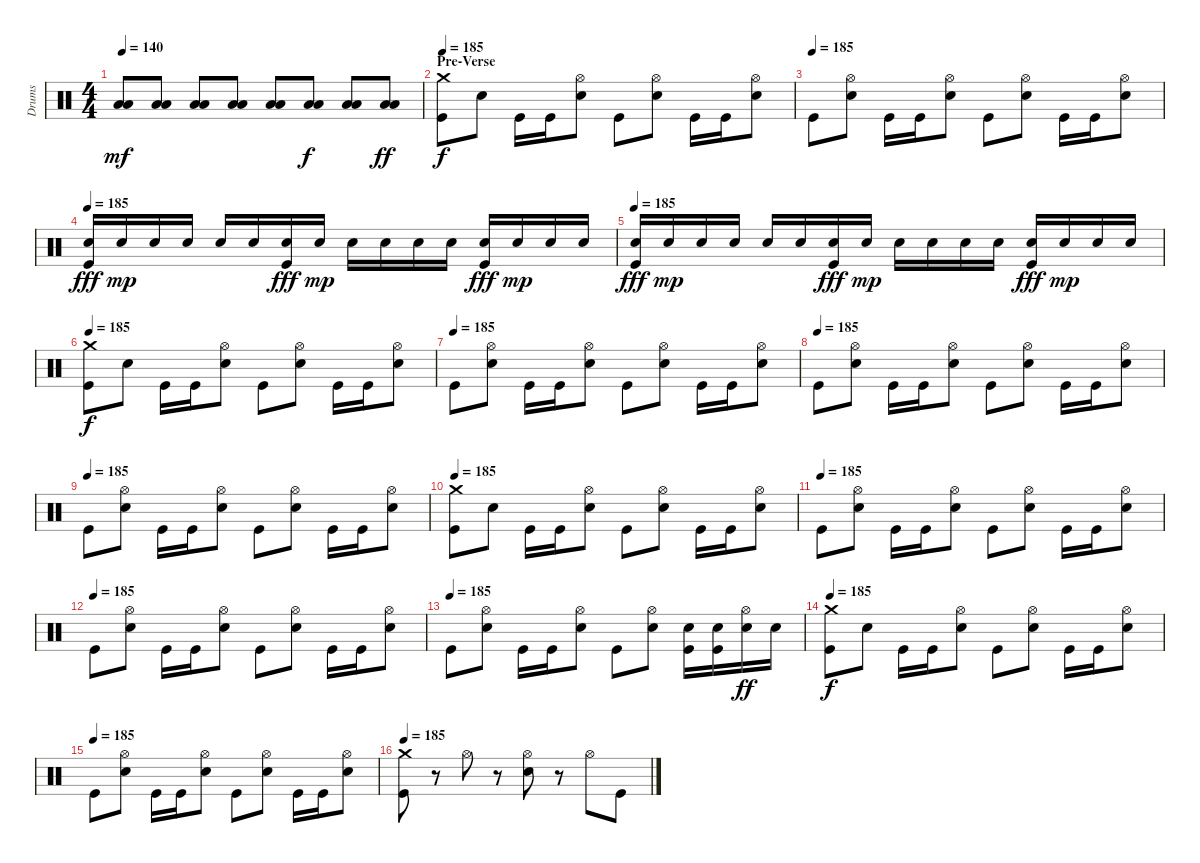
\track ("Drums" "Drums") {instrument percussion}
\staff {score}
\articulation defaults
\ts (4 4)
\tempo 140
\clef neutral
\ks c
("Low Tom (hit)" "Low Tom (hit)").8{dy mf} ("Low Tom (hit)" "Low Tom (hit)").8 ("Low Tom (hit)" "Low Tom (hit)").8 ("Low Tom (hit)" "Low Tom (hit)").8 ("Low Tom (hit)" "Low Tom (hit)").8 ("Low Tom (hit)" "Low Tom (hit)").8{dy f} ("Low Tom (hit)" "Low Tom (hit)").8 ("Low Tom (hit)" "Low Tom (hit)").8{dy ff} |
\section ("" "Pre-Verse")
\tempo 185
("Crash medium (hit)" "Kick (hit)").8{dy f} "Electric Snare (hit)".8 "Kick (hit)".16 "Kick (hit)".16 ("Hi-Hat (open)" "Electric Snare (hit)").8 "Kick (hit)".8 ("Hi-Hat (open)" "Electric Snare (hit)").8 "Kick (hit)".16 "Kick (hit)".16 ("Hi-Hat (open)" "Electric Snare (hit)").8 |
\tempo (185)
"Kick (hit)".8 ("Hi-Hat (open)" "Electric Snare (hit)").8 "Kick (hit)".16 "Kick (hit)".16 ("Hi-Hat (open)" "Electric Snare (hit)").8 "Kick (hit)".8 ("Hi-Hat (open)" "Electric Snare (hit)").8 "Kick (hit)".16 "Kick (hit)".16 ("Hi-Hat (open)" "Electric Snare (hit)").8 |
\tempo 185
("Electric Snare (hit)" "Kick (hit)").16{dy fff} "Electric Snare (hit)".16{dy mp} "Electric Snare (hit)".16 "Electric Snare (hit)".16 "Electric Snare (hit)".16 "Electric Snare (hit)".16 ("Electric Snare (hit)" "Kick (hit)").16{dy fff} "Electric Snare (hit)".16{dy mp} "Electric Snare (hit)".16 "Electric Snare (hit)".16 "Electric Snare (hit)".16 "Electric Snare (hit)".16 ("Electric Snare (hit)" "Kick (hit)").16{dy fff} "Electric Snare (hit)".16{dy mp} "Electric Snare (hit)".16 "Electric Snare (hit)".16 |
\tempo 185
("Electric Snare (hit)" "Kick (hit)").16{dy fff} "Electric Snare (hit)".16{dy mp} "Electric Snare (hit)".16 "Electric Snare (hit)".16 "Electric Snare (hit)".16 "Electric Snare (hit)".16 ("Electric Snare (hit)" "Kick (hit)").16{dy fff} "Electric Snare (hit)".16{dy mp} "Electric Snare (hit)".16 "Electric Snare (hit)".16 "Electric Snare (hit)".16 "Electric Snare (hit)".16 ("Electric Snare (hit)" "Kick (hit)").16{dy fff} "Electric Snare (hit)".16{dy mp} "Electric Snare (hit)".16 "Electric Snare (hit)".16 |
\tempo 185
("Crash medium (hit)" "Kick (hit)").8{dy f} "Electric Snare (hit)".8 "Kick (hit)".16 "Kick (hit)".16 ("Hi-Hat (open)" "Electric Snare (hit)").8 "Kick (hit)".8 ("Hi-Hat (open)" "Electric Snare (hit)").8 "Kick (hit)".16 "Kick (hit)".16 ("Hi-Hat (open)" "Electric Snare (hit)").8 |
\tempo (185)
"Kick (hit)".8 ("Hi-Hat (open)" "Electric Snare (hit)").8 "Kick (hit)".16 "Kick (hit)".16 ("Hi-Hat (open)" "Electric Snare (hit)").8 "Kick (hit)".8 ("Hi-Hat (open)" "Electric Snare (hit)").8 "Kick (hit)".16 "Kick (hit)".16 ("Hi-Hat (open)" "Electric Snare (hit)").8 |
\tempo (185)
"Kick (hit)".8 ("Hi-Hat (open)" "Electric Snare (hit)").8 "Kick (hit)".16 "Kick (hit)".16 ("Hi-Hat (open)" "Electric Snare (hit)").8 "Kick (hit)".8 ("Hi-Hat (open)" "Electric Snare (hit)").8 "Kick (hit)".16 "Kick (hit)".16 ("Hi-Hat (open)" "Electric Snare (hit)").8 |
\tempo (185)
"Kick (hit)".8 ("Hi-Hat (open)" "Electric Snare (hit)").8 "Kick (hit)".16 "Kick (hit)".16 ("Hi-Hat (open)" "Electric Snare (hit)").8 "Kick (hit)".8 ("Hi-Hat (open)" "Electric Snare (hit)").8 "Kick (hit)".16 "Kick (hit)".16 ("Hi-Hat (open)" "Electric Snare (hit)").8 |
\tempo 185
("Crash medium (hit)" "Kick (hit)").8 "Electric Snare (hit)".8 "Kick (hit)".16 "Kick (hit)".16 ("Hi-Hat (open)" "Electric Snare (hit)").8 "Kick (hit)".8 ("Hi-Hat (open)" "Electric Snare (hit)").8 "Kick (hit)".16 "Kick (hit)".16 ("Hi-Hat (open)" "Electric Snare (hit)").8 |
\tempo (185)
"Kick (hit)".8 ("Hi-Hat (open)" "Electric Snare (hit)").8 "Kick (hit)".16 "Kick (hit)".16 ("Hi-Hat (open)" "Electric Snare (hit)").8 "Kick (hit)".8 ("Hi-Hat (open)" "Electric Snare (hit)").8 "Kick (hit)".16 "Kick (hit)".16 ("Hi-Hat (open)" "Electric Snare (hit)").8 |
\tempo (185)
"Kick (hit)".8 ("Hi-Hat (open)" "Electric Snare (hit)").8 "Kick (hit)".16 "Kick (hit)".16 ("Hi-Hat (open)" "Electric Snare (hit)").8 "Kick (hit)".8 ("Hi-Hat (open)" "Electric Snare (hit)").8 "Kick (hit)".16 "Kick (hit)".16 ("Hi-Hat (open)" "Electric Snare (hit)").8 |
\tempo (185)
"Kick (hit)".8 ("Hi-Hat (open)" "Electric Snare (hit)").8 "Kick (hit)".16 "Kick (hit)".16 ("Hi-Hat (open)" "Electric Snare (hit)").8 "Kick (hit)".8 ("Hi-Hat (open)" "Electric Snare (hit)").8 ("Electric Snare (hit)" "Kick (hit)").16 ("Electric Snare (hit)" "Kick (hit)").16 ("Hi-Hat (open)" "Electric Snare (hit)").16{dy ff} "Electric Snare (hit)".16 |
\tempo 185
("Crash medium (hit)" "Kick (hit)").8{dy f} "Electric Snare (hit)".8 "Kick (hit)".16 "Kick (hit)".16 ("Hi-Hat (open)" "Electric Snare (hit)").8 "Kick (hit)".8 ("Hi-Hat (open)" "Electric Snare (hit)").8 "Kick (hit)".16 "Kick (hit)".16 ("Hi-Hat (open)" "Electric Snare (hit)").8 |
\tempo (185)
"Kick (hit)".8 ("Hi-Hat (open)" "Electric Snare (hit)").8 "Kick (hit)".16 "Kick (hit)".16 ("Hi-Hat (open)" "Electric Snare (hit)").8 "Kick (hit)".8 ("Hi-Hat (open)" "Electric Snare (hit)").8 "Kick (hit)".16 "Kick (hit)".16 ("Hi-Hat (open)" "Electric Snare (hit)").8 |
\tempo 185
("Crash medium (hit)" "Kick (hit)").8 r.8 "Hi-Hat (open)".8 r.8 ("Hi-Hat (open)" "Electric Snare (hit)").8 r.8 "Hi-Hat (open)".8 "Kick (hit)".8
